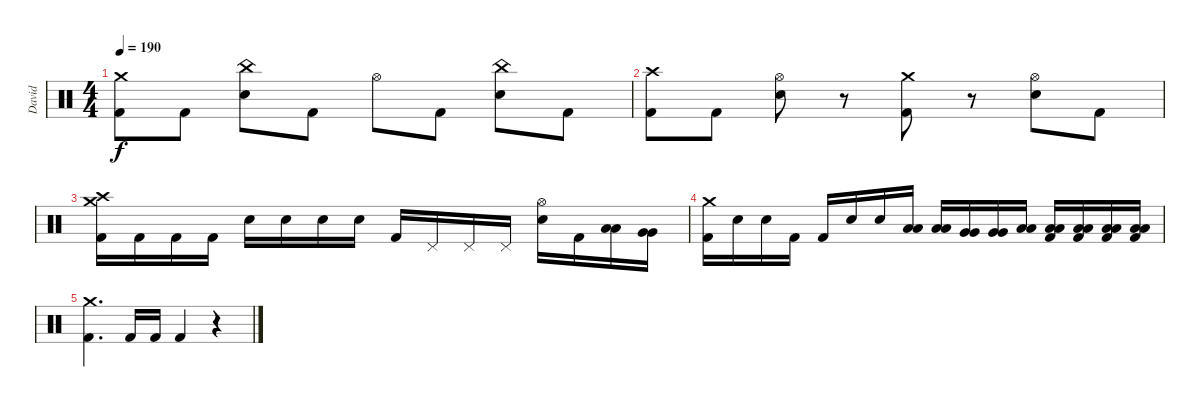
\track ("David" "David") {instrument percussion}
\staff {score}
\articulation defaults
\ts (4 4)
\tempo 190
\clef neutral
\ks c
("Crash medium (hit)" "Kick (hit) 2").8{dy f} "Kick (hit) 2".8 ("China (hit)" "Electric Snare (hit)").8 "Kick (hit) 2".8 "Hi-Hat (open)".8 "Kick (hit) 2".8 ("China (hit)" "Electric Snare (hit)").8 "Kick (hit) 2".8 |
("Crash high (hit)" "Kick (hit) 2").8 "Kick (hit) 2".8 ("Hi-Hat (open)" "Electric Snare (hit)").8 r.8 ("Crash medium (hit)" "Kick (hit) 2").8 r.8 ("Hi-Hat (open)" "Electric Snare (hit)").8 "Kick (hit) 2".8 |
("Crash high (hit)" "Crash medium (hit)" "Kick (hit) 2").16 "Kick (hit) 2".16 "Kick (hit) 2".16 "Kick (hit) 2".16 "Electric Snare (hit)".16 "Electric Snare (hit)".16 "Electric Snare (hit)".16 "Electric Snare (hit)".16 "Kick (hit) 2".16 "Pedal Hi-Hat (hit)".16 "Pedal Hi-Hat (hit)".16 "Pedal Hi-Hat (hit)".16 ("Hi-Hat (open)" "Electric Snare (hit)").16 "Kick (hit) 2".16 ("Low Tom (hit)" "Low Tom (hit)").16 ("Very Low Tom (hit)" "Very Low Tom (hit)").16 |
("Crash medium (hit)" "Kick (hit) 2").16 "Electric Snare (hit)".16 "Electric Snare (hit)".16 "Kick (hit) 2".16 "Kick (hit) 2".16 "Electric Snare (hit)".16 "Electric Snare (hit)".16 ("Low Tom (hit)" "Low Tom (hit)").16 ("Low Tom (hit)" "Low Tom (hit)").16 ("Very Low Tom (hit)" "Very Low Tom (hit)").16 ("Very Low Tom (hit)" "Very Low Tom (hit)").16 ("Low Floor Tom (hit)" "Low Floor Tom (hit)").16 ("Low Floor Tom (hit)" "Low Floor Tom (hit)" "Kick (hit) 2").16 ("Low Floor Tom (hit)" "Low Floor Tom (hit)" "Kick (hit) 2").16 ("Low Floor Tom (hit)" "Low Floor Tom (hit)" "Kick (hit) 2").16 ("Low Floor Tom (hit)" "Low Floor Tom (hit)" "Kick (hit) 2").16 |
("Crash medium (hit)" "Kick (hit) 2").4{d} "Kick (hit) 2".16 "Kick (hit) 2".16 "Kick (hit) 2".4 r.4
